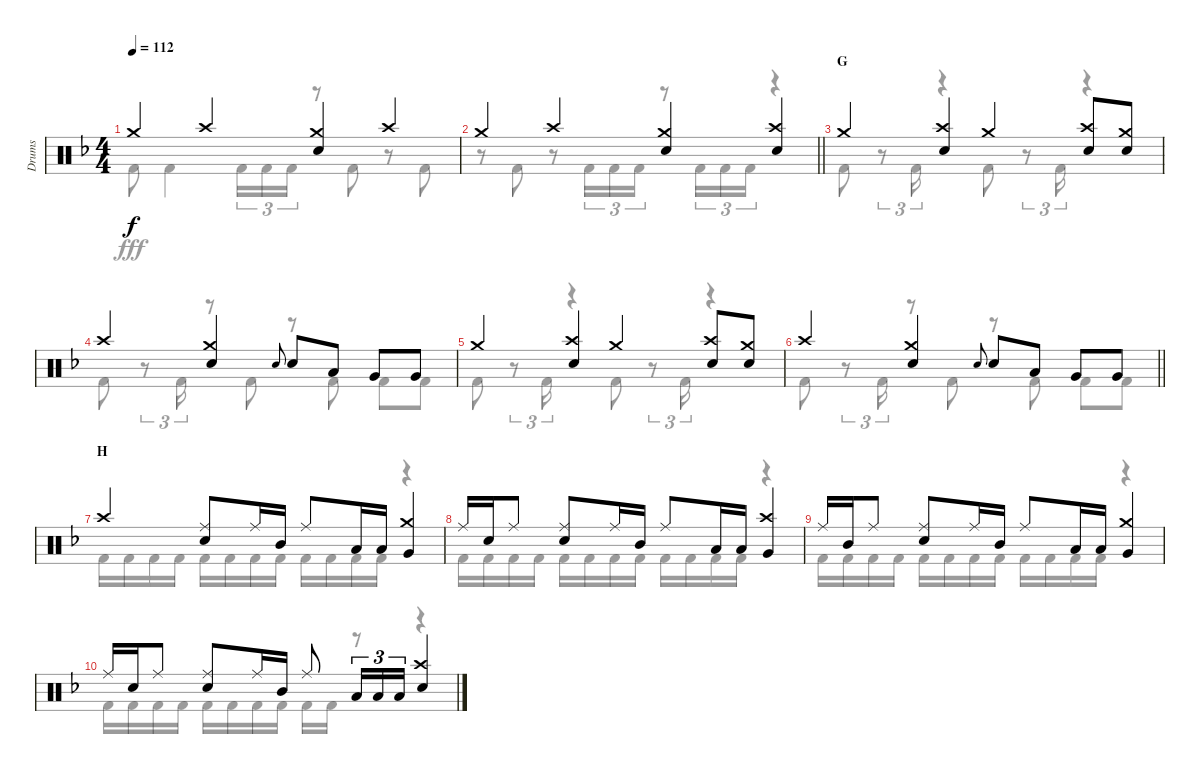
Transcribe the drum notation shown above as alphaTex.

\track ("Drums" "Drums") {instrument percussion}
\staff {score}
\articulation defaults
\voice
\ts (4 4)
\tempo 112
\clef neutral
\ks f "Crash medium (hit)".4{dy f} "Crash high (hit)".4
("Crash medium (hit)" "Snare (hit) 2").4 "Crash high (hit)".4 |
\barLineRight lightlight "Crash medium (hit)".4 "Crash high (hit)".4
("Crash medium (hit)" "Snare (hit) 2").4 ("Crash high (hit)" "Snare (hit) 2").4 |
\section ("" "G")
"Crash medium (hit)".4 ("Crash high (hit)" "Snare (hit) 2").4 "Crash medium (hit)".4 ("Crash high (hit)" "Snare (hit) 2").8 ("Crash medium (hit)" "Snare (hit) 2").8 |
"Crash high (hit)".4 ("Crash medium (hit)" "Snare (hit) 2").4 "Snare (hit) 2".8{gr onbeat} "Snare (hit) 2".8 "Low Tom (hit)".8 "Very Low Tom (hit)".8 "Very Low Tom (hit)".8 |
"Crash medium (hit)".4 ("Crash high (hit)" "Snare (hit) 2").4 "Crash medium (hit)".4 ("Crash high (hit)" "Snare (hit) 2").8 ("Crash medium (hit)" "Snare (hit) 2").8 |
\barLineRight lightlight "Crash high (hit)".4
("Crash medium (hit)" "Snare (hit) 2").4 "Snare (hit) 2".8{gr onbeat} "Snare (hit) 2".8 "Low Tom (hit)".8 "Very Low Tom (hit)".8 "Very Low Tom (hit)".8 |
\section ("" "H")
"Crash high (hit)".4 ("Ride (middle)" "Snare (hit) 2").8 "Ride (middle)".16 "Mid Tom (hit)".16 "Ride (middle)".8 "Low Tom (hit)".16 "Low Tom (hit)".16 ("Crash medium (hit)" "Very Low Tom (hit)").4 |
"Ride (middle)".16 "Snare (hit) 2".16 "Ride (middle)".8 ("Ride (middle)" "Snare (hit) 2").8 "Ride (middle)".16 "Mid Tom (hit)".16 "Ride (middle)".8 "Low Tom (hit)".16 "Low Tom (hit)".16 ("Crash high (hit)" "Very Low Tom (hit)").4 |
"Ride (middle)".16 "Mid Tom (hit)".16 "Ride (middle)".8 ("Ride (middle)" "Snare (hit) 2").8 "Ride (middle)".16 "Mid Tom (hit)".16 "Ride (middle)".8 "Low Tom (hit)".16 "Low Tom (hit)".16 ("Crash medium (hit)" "Very Low Tom (hit)").4 |
"Ride (middle)".16 "Snare (hit) 2".16 "Ride (middle)".8 ("Ride (middle)" "Snare (hit) 2").8 "Ride (middle)".16 "Mid Tom (hit)".16 "Ride (middle)".8 "Low Tom (hit)".16{tu (3 2)} "Low Tom (hit)".16{tu (3 2)} "Low Tom (hit)".16{tu (3 2)} ("Crash high (hit)" "Snare (hit) 2").4
\voice
\clef neutral
\ottava regular
\simile none
\ks f "Kick (hit) 2".8{dy fff} "Kick (hit) 2".4 "Kick (hit) 2".16{tu (3 2)} "Kick (hit) 2".16{tu (3 2)} "Kick (hit) 2".16{tu (3 2)}
r.8 "Kick (hit) 2".8 r.8 "Kick (hit) 2".8 |
\barLineRight lightlight
r.8 "Kick (hit) 2".8 r.8 "Kick (hit) 2".16{tu (3 2)} "Kick (hit) 2".16{tu (3 2)} "Kick (hit) 2".16{tu (3 2)} r.8 "Kick (hit) 2".16{tu (3 2)} "Kick (hit) 2".16{tu (3 2)} "Kick (hit) 2".16{tu (3 2)} r.4 |
"Kick (hit) 2".8 r.8{tu (3 2)} "Kick (hit) 2".16{tu (3 2)} r.4 "Kick (hit) 2".8 r.8{tu (3 2)} "Kick (hit) 2".16{tu (3 2)} r.4 |
"Kick (hit) 2".8 r.8{tu (3 2)} "Kick (hit) 2".16{tu (3 2)} r.8 "Kick (hit) 2".8 r.8 "Kick (hit) 2".8 "Kick (hit) 2".8 "Kick (hit) 2".8 |
"Kick (hit) 2".8 r.8{tu (3 2)} "Kick (hit) 2".16{tu (3 2)} r.4 "Kick (hit) 2".8 r.8{tu (3 2)} "Kick (hit) 2".16{tu (3 2)} r.4 |
\barLineRight lightlight "Kick (hit) 2".8
r.8{tu (3 2)} "Kick (hit) 2".16{tu (3 2)} r.8 "Kick (hit) 2".8 r.8 "Kick (hit) 2".8 "Kick (hit) 2".8 "Kick (hit) 2".8 |
"Kick (hit) 2".16 "Kick (hit) 2".16 "Kick (hit) 2".16 "Kick (hit) 2".16 "Kick (hit) 2".16 "Kick (hit) 2".16 "Kick (hit) 2".16 "Kick (hit) 2".16 "Kick (hit) 2".16 "Kick (hit) 2".16 "Kick (hit) 2".16 "Kick (hit) 2".16 r.4 |
"Kick (hit) 2".16 "Kick (hit) 2".16 "Kick (hit) 2".16 "Kick (hit) 2".16 "Kick (hit) 2".16 "Kick (hit) 2".16 "Kick (hit) 2".16 "Kick (hit) 2".16 "Kick (hit) 2".16 "Kick (hit) 2".16 "Kick (hit) 2".16 "Kick (hit) 2".16 r.4 |
"Kick (hit) 2".16 "Kick (hit) 2".16 "Kick (hit) 2".16 "Kick (hit) 2".16 "Kick (hit) 2".16 "Kick (hit) 2".16 "Kick (hit) 2".16 "Kick (hit) 2".16 "Kick (hit) 2".16 "Kick (hit) 2".16 "Kick (hit) 2".16 "Kick (hit) 2".16 r.4 |
"Kick (hit) 2".16 "Kick (hit) 2".16 "Kick (hit) 2".16 "Kick (hit) 2".16 "Kick (hit) 2".16 "Kick (hit) 2".16 "Kick (hit) 2".16 "Kick (hit) 2".16 "Kick (hit) 2".16 "Kick (hit) 2".16 r.8 r.4
